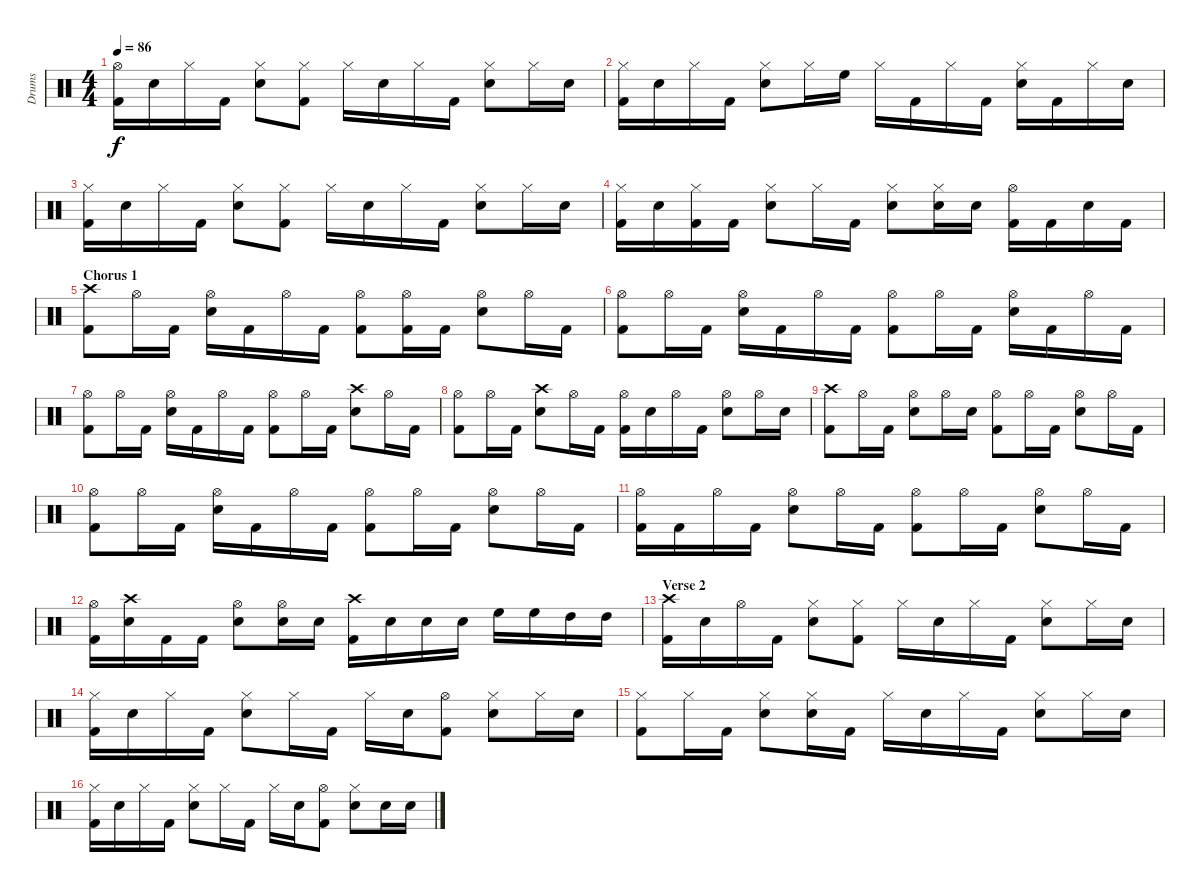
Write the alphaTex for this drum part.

\track ("Drums" "Drums") {instrument percussion}
\staff {score}
\articulation defaults
\ts (4 4)
\tempo 86
\clef neutral
\ks c
("Hi-Hat (open)" "Kick (hit) 2").16{dy f} "Electric Snare (hit)".16 "Hi-Hat (closed)".16 "Kick (hit) 2".16 ("Hi-Hat (closed)" "Electric Snare (hit)").8 ("Hi-Hat (closed)" "Kick (hit) 2").8 "Hi-Hat (closed)".16 "Electric Snare (hit)".16 "Hi-Hat (closed)".16 "Kick (hit) 2".16 ("Hi-Hat (closed)" "Electric Snare (hit)").8 "Hi-Hat (closed)".16 "Electric Snare (hit)".16 |
("Hi-Hat (closed)" "Kick (hit) 2").16 "Electric Snare (hit)".16 "Hi-Hat (closed)".16 "Kick (hit) 2".16 ("Hi-Hat (closed)" "Electric Snare (hit)").8 "Hi-Hat (closed)".16 "High Floor Tom (hit)".16 "Hi-Hat (closed)".16 "Kick (hit) 2".16 "Hi-Hat (closed)".16 "Kick (hit) 2".16 ("Hi-Hat (closed)" "Electric Snare (hit)").16 "Kick (hit) 2".16 "Hi-Hat (closed)".16 "Electric Snare (hit)".16 |
("Hi-Hat (closed)" "Kick (hit) 2").16 "Electric Snare (hit)".16 "Hi-Hat (closed)".16 "Kick (hit) 2".16 ("Hi-Hat (closed)" "Electric Snare (hit)").8 ("Hi-Hat (closed)" "Kick (hit) 2").8 "Hi-Hat (closed)".16 "Electric Snare (hit)".16 "Hi-Hat (closed)".16 "Kick (hit) 2".16 ("Hi-Hat (closed)" "Electric Snare (hit)").8 "Hi-Hat (closed)".16 "Electric Snare (hit)".16 |
("Hi-Hat (closed)" "Kick (hit) 2").16 "Electric Snare (hit)".16 ("Hi-Hat (closed)" "Kick (hit) 2").16 "Kick (hit) 2".16 ("Hi-Hat (closed)" "Electric Snare (hit)").8 "Hi-Hat (closed)".16 "Kick (hit) 2".16 ("Hi-Hat (closed)" "Electric Snare (hit)").8 ("Hi-Hat (closed)" "Electric Snare (hit)").16 "Electric Snare (hit)".16 ("Hi-Hat (open)" "Kick (hit) 2").16 "Kick (hit) 2".16 "Electric Snare (hit)".16 "Kick (hit) 2".16 |
\section ("" "Chorus 1")
("Crash high (hit)" "Kick (hit) 2").8 "Hi-Hat (open)".16 "Kick (hit) 2".16 ("Hi-Hat (open)" "Electric Snare (hit)").16 "Kick (hit) 2".16 "Hi-Hat (open)".16 "Kick (hit) 2".16 ("Hi-Hat (open)" "Kick (hit) 2").8 ("Hi-Hat (open)" "Kick (hit) 2").16 "Kick (hit) 2".16 ("Hi-Hat (open)" "Electric Snare (hit)").8 "Hi-Hat (open)".16 "Kick (hit) 2".16 |
("Hi-Hat (open)" "Kick (hit) 2").8 "Hi-Hat (open)".16 "Kick (hit) 2".16 ("Hi-Hat (open)" "Electric Snare (hit)").16 "Kick (hit) 2".16 "Hi-Hat (open)".16 "Kick (hit) 2".16 ("Hi-Hat (open)" "Kick (hit) 2").8 "Hi-Hat (open)".16 "Kick (hit) 2".16 ("Hi-Hat (open)" "Electric Snare (hit)").16 "Kick (hit) 2".16 "Hi-Hat (open)".16 "Kick (hit) 2".16 |
("Hi-Hat (open)" "Kick (hit) 2").8 "Hi-Hat (open)".16 "Kick (hit) 2".16 ("Hi-Hat (open)" "Electric Snare (hit)").16 "Kick (hit) 2".16 "Hi-Hat (open)".16 "Kick (hit) 2".16 ("Hi-Hat (open)" "Kick (hit) 2").8 "Hi-Hat (open)".16 "Kick (hit) 2".16 ("Crash high (hit)" "Electric Snare (hit)").8 "Hi-Hat (open)".16 "Kick (hit) 2".16 |
("Hi-Hat (open)" "Kick (hit) 2").8 "Hi-Hat (open)".16 "Kick (hit) 2".16 ("Crash high (hit)" "Electric Snare (hit)").8 "Hi-Hat (open)".16 "Kick (hit) 2".16 ("Hi-Hat (open)" "Kick (hit) 2").16 "Electric Snare (hit)".16 "Hi-Hat (open)".16 "Kick (hit) 2".16 ("Hi-Hat (open)" "Electric Snare (hit)").8 "Hi-Hat (open)".16 "Electric Snare (hit)".16 |
("Crash high (hit)" "Kick (hit) 2").8 "Hi-Hat (open)".16 "Kick (hit) 2".16 ("Hi-Hat (open)" "Electric Snare (hit)").8 "Hi-Hat (open)".16 "Electric Snare (hit)".16 ("Hi-Hat (open)" "Kick (hit) 2").8 "Hi-Hat (open)".16 "Kick (hit) 2".16 ("Hi-Hat (open)" "Electric Snare (hit)").8 "Hi-Hat (open)".16 "Kick (hit) 2".16 |
("Hi-Hat (open)" "Kick (hit) 2").8 "Hi-Hat (open)".16 "Kick (hit) 2".16 ("Hi-Hat (open)" "Electric Snare (hit)").16 "Kick (hit) 2".16 "Hi-Hat (open)".16 "Kick (hit) 2".16 ("Hi-Hat (open)" "Kick (hit) 2").8 "Hi-Hat (open)".16 "Kick (hit) 2".16 ("Hi-Hat (open)" "Electric Snare (hit)").8 "Hi-Hat (open)".16 "Kick (hit) 2".16 |
("Hi-Hat (open)" "Kick (hit) 2").16 "Kick (hit) 2".16 "Hi-Hat (open)".16 "Kick (hit) 2".16 ("Hi-Hat (open)" "Electric Snare (hit)").8 "Hi-Hat (open)".16 "Kick (hit) 2".16 ("Hi-Hat (open)" "Kick (hit) 2").8 "Hi-Hat (open)".16 "Kick (hit) 2".16 ("Hi-Hat (open)" "Electric Snare (hit)").8 "Hi-Hat (open)".16 "Kick (hit) 2".16 |
("Hi-Hat (open)" "Kick (hit) 2").16 ("Crash high (hit)" "Electric Snare (hit)").16 "Kick (hit) 2".16 "Kick (hit) 2".16 ("Hi-Hat (open)" "Electric Snare (hit)").8 ("Hi-Hat (open)" "Electric Snare (hit)").16 "Electric Snare (hit)".16 ("Crash high (hit)" "Kick (hit) 2").16 "Electric Snare (hit)".16 "Electric Snare (hit)".16 "Electric Snare (hit)".16 "High Floor Tom (hit)".16 "High Floor Tom (hit)".16 "High Tom (hit)".16 "High Tom (hit)".16 |
\section ("" "Verse 2")
("Crash high (hit)" "Kick (hit) 2").16 "Electric Snare (hit)".16 "Hi-Hat (open)".16 "Kick (hit) 2".16 ("Hi-Hat (closed)" "Electric Snare (hit)").8 ("Hi-Hat (closed)" "Kick (hit) 2").8 "Hi-Hat (closed)".16 "Electric Snare (hit)".16 "Hi-Hat (closed)".16 "Kick (hit) 2".16 ("Hi-Hat (closed)" "Electric Snare (hit)").8 "Hi-Hat (closed)".16 "Electric Snare (hit)".16 |
("Hi-Hat (closed)" "Kick (hit) 2").16 "Electric Snare (hit)".16 "Hi-Hat (closed)".16 "Kick (hit) 2".16 ("Hi-Hat (closed)" "Electric Snare (hit)").8 "Hi-Hat (closed)".16 "Kick (hit) 2".16 "Hi-Hat (closed)".16 "Electric Snare (hit)".16 ("Hi-Hat (open)" "Kick (hit) 2").8 ("Hi-Hat (closed)" "Electric Snare (hit)").8 "Hi-Hat (closed)".16 "Electric Snare (hit)".16 |
("Hi-Hat (closed)" "Kick (hit) 2").8 "Hi-Hat (closed)".16 "Kick (hit) 2".16 ("Hi-Hat (closed)" "Electric Snare (hit)").8 ("Hi-Hat (closed)" "Electric Snare (hit)").16 "Kick (hit) 2".16 "Hi-Hat (closed)".16 "Electric Snare (hit)".16 "Hi-Hat (closed)".16 "Kick (hit) 2".16 ("Hi-Hat (closed)" "Electric Snare (hit)").8 "Hi-Hat (closed)".16 "Electric Snare (hit)".16 |
("Hi-Hat (closed)" "Kick (hit) 2").16 "Electric Snare (hit)".16 "Hi-Hat (closed)".16 "Kick (hit) 2".16 ("Hi-Hat (closed)" "Electric Snare (hit)").8 "Hi-Hat (closed)".16 "Kick (hit) 2".16 "Hi-Hat (closed)".16 "Electric Snare (hit)".16 ("Hi-Hat (open)" "Kick (hit) 2").8 ("Hi-Hat (closed)" "Electric Snare (hit)").8 "Electric Snare (hit)".16 "Electric Snare (hit)".16
